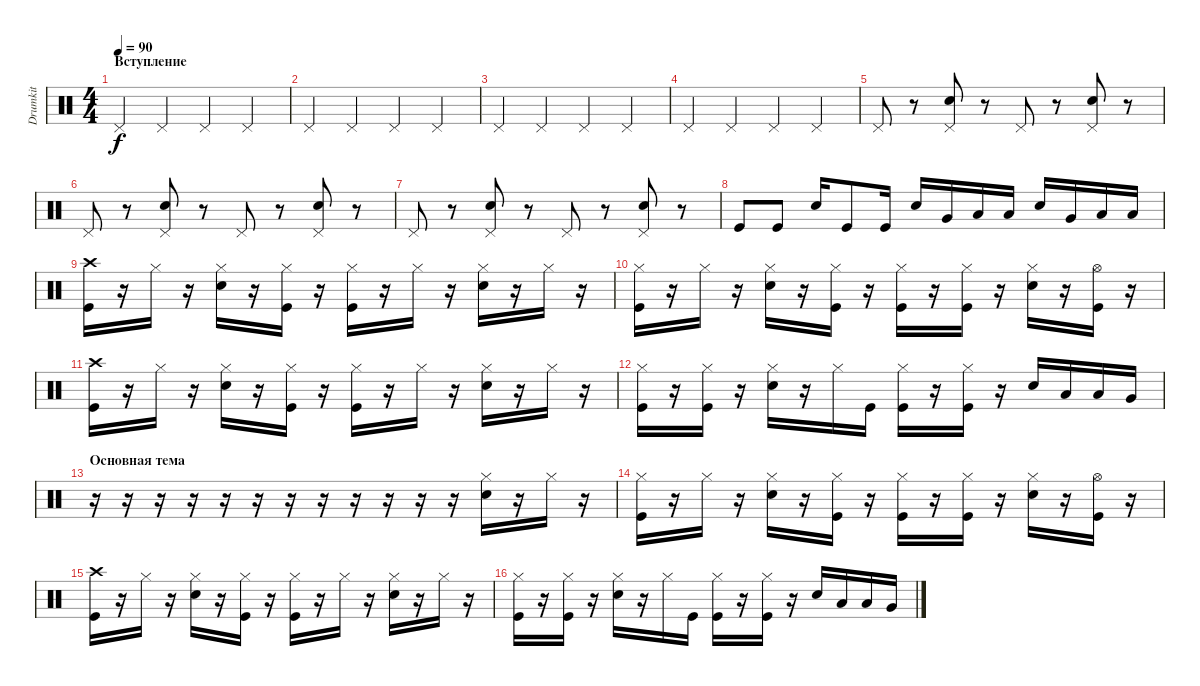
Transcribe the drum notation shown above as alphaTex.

\track ("Drumkit" "Drumkit") {instrument percussion}
\staff {score}
\articulation defaults
\ts (4 4)
\section ("" "Вступление")
\tempo 90
\clef neutral
\ks c "Pedal Hi-Hat (hit)".4{dy f} "Pedal Hi-Hat (hit)".4 "Pedal Hi-Hat (hit)".4 "Pedal Hi-Hat (hit)".4
|
"Pedal Hi-Hat (hit)".4 "Pedal Hi-Hat (hit)".4 "Pedal Hi-Hat (hit)".4 "Pedal Hi-Hat (hit)".4 |
"Pedal Hi-Hat (hit)".4 "Pedal Hi-Hat (hit)".4 "Pedal Hi-Hat (hit)".4 "Pedal Hi-Hat (hit)".4 |
"Pedal Hi-Hat (hit)".4 "Pedal Hi-Hat (hit)".4 "Pedal Hi-Hat (hit)".4 "Pedal Hi-Hat (hit)".4 |
"Pedal Hi-Hat (hit)".8 r.8 ("Snare (hit) 2" "Pedal Hi-Hat (hit)").8 r.8 "Pedal Hi-Hat (hit)".8 r.8 ("Snare (hit) 2" "Pedal Hi-Hat (hit)").8 r.8 |
"Pedal Hi-Hat (hit)".8 r.8 ("Snare (hit) 2" "Pedal Hi-Hat (hit)").8 r.8 "Pedal Hi-Hat (hit)".8 r.8 ("Snare (hit) 2" "Pedal Hi-Hat (hit)").8 r.8 |
"Pedal Hi-Hat (hit)".8 r.8 ("Snare (hit) 2" "Pedal Hi-Hat (hit)").8 r.8 "Pedal Hi-Hat (hit)".8 r.8 ("Snare (hit) 2" "Pedal Hi-Hat (hit)").8 r.8 |
"Kick (hit)".8 "Kick (hit)".8 "Snare (hit) 2".16 "Kick (hit)".8 "Kick (hit)".16 "Snare (hit) 2".16 "Very Low Tom (hit)".16 "Low Tom (hit)".16 "Low Floor Tom (hit)".16 "Snare (hit) 2".16 "Very Low Tom (hit)".16 "Low Tom (hit)".16 "Low Floor Tom (hit)".16 |
("Kick (hit)" "Crash high (hit)").16 r.16 "Hi-Hat (closed)".16 r.16 ("Hi-Hat (closed)" "Snare (hit) 2").16 r.16 ("Hi-Hat (closed)" "Kick (hit)").16 r.16 ("Hi-Hat (closed)" "Kick (hit)").16 r.16 "Hi-Hat (closed)".16 r.16 ("Hi-Hat (closed)" "Snare (hit) 2").16 r.16 "Hi-Hat (closed)".16 r.16 |
("Hi-Hat (closed)" "Kick (hit)").16 r.16 "Hi-Hat (closed)".16 r.16 ("Hi-Hat (closed)" "Snare (hit) 2").16 r.16 ("Hi-Hat (closed)" "Kick (hit)").16 r.16 ("Hi-Hat (closed)" "Kick (hit)").16 r.16 ("Hi-Hat (closed)" "Kick (hit)").16 r.16 ("Hi-Hat (closed)" "Snare (hit) 2").16 r.16 ("Hi-Hat (open)" "Kick (hit)").16 r.16 |
("Kick (hit)" "Crash high (hit)").16 r.16 "Hi-Hat (closed)".16 r.16 ("Hi-Hat (closed)" "Snare (hit) 2").16 r.16 ("Hi-Hat (closed)" "Kick (hit)").16 r.16 ("Hi-Hat (closed)" "Kick (hit)").16 r.16 "Hi-Hat (closed)".16 r.16 ("Hi-Hat (closed)" "Snare (hit) 2").16 r.16 "Hi-Hat (closed)".16 r.16 |
("Hi-Hat (closed)" "Kick (hit)").16 r.16 ("Hi-Hat (closed)" "Kick (hit)").16 r.16 ("Hi-Hat (closed)" "Snare (hit) 2").16 r.16 "Hi-Hat (closed)".16 "Kick (hit)".16 ("Hi-Hat (closed)" "Kick (hit)").16 r.16 ("Hi-Hat (closed)" "Kick (hit)").16 r.16 "Snare (hit) 2".16 "Low Tom (hit)".16 "Low Floor Tom (hit)".16 "Very Low Tom (hit)".16 |
\section ("" "Основная тема")
r.16 r.16 r.16 r.16 r.16 r.16 r.16 r.16 r.16 r.16 r.16 r.16 ("Hi-Hat (closed)" "Snare (hit) 2").16 r.16 "Hi-Hat (closed)".16 r.16 |
("Hi-Hat (closed)" "Kick (hit)").16 r.16 "Hi-Hat (closed)".16 r.16 ("Hi-Hat (closed)" "Snare (hit) 2").16 r.16 ("Hi-Hat (closed)" "Kick (hit)").16 r.16 ("Hi-Hat (closed)" "Kick (hit)").16 r.16 ("Hi-Hat (closed)" "Kick (hit)").16 r.16 ("Hi-Hat (closed)" "Snare (hit) 2").16 r.16 ("Hi-Hat (open)" "Kick (hit)").16 r.16 |
("Kick (hit)" "Crash high (hit)").16 r.16 "Hi-Hat (closed)".16 r.16 ("Hi-Hat (closed)" "Snare (hit) 2").16 r.16 ("Hi-Hat (closed)" "Kick (hit)").16 r.16 ("Hi-Hat (closed)" "Kick (hit)").16 r.16 "Hi-Hat (closed)".16 r.16 ("Hi-Hat (closed)" "Snare (hit) 2").16 r.16 "Hi-Hat (closed)".16 r.16 |
("Hi-Hat (closed)" "Kick (hit)").16 r.16 ("Hi-Hat (closed)" "Kick (hit)").16 r.16 ("Hi-Hat (closed)" "Snare (hit) 2").16 r.16 "Hi-Hat (closed)".16 "Kick (hit)".16 ("Hi-Hat (closed)" "Kick (hit)").16 r.16 ("Hi-Hat (closed)" "Kick (hit)").16 r.16 "Snare (hit) 2".16 "Low Tom (hit)".16 "Low Floor Tom (hit)".16 "Very Low Tom (hit)".16
